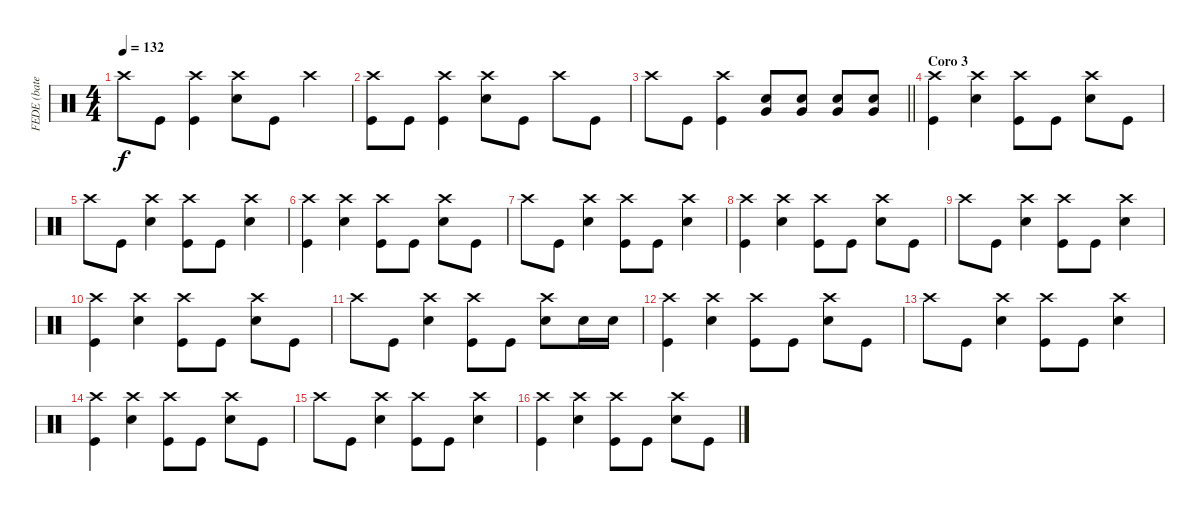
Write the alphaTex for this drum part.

\track ("FEDE (bateria)" "FEDE (bate") {instrument percussion}
\staff {score}
\articulation defaults
\ts (4 4)
\tempo 132
\clef neutral
\ks c "Crash high (hit)".8{dy f} "Kick (hit)".8
("Crash high (hit)" "Kick (hit)").4 ("Crash high (hit)" "Snare (hit) 2").8 "Kick (hit)".8 "Crash high (hit)".4 |
("Crash high (hit)" "Kick (hit)").8 "Kick (hit)".8 ("Crash high (hit)" "Kick (hit)").4 ("Crash high (hit)" "Snare (hit) 2").8 "Kick (hit)".8 "Crash high (hit)".8 "Kick (hit)".8 |
\barLineRight lightlight "Crash high (hit)".8 "Kick (hit)".8
("Crash high (hit)" "Kick (hit)").4 ("Snare (hit) 2" "Very Low Tom (hit)").8 ("Snare (hit) 2" "Very Low Tom (hit)").8 ("Snare (hit) 2" "Very Low Tom (hit)").8 ("Snare (hit) 2" "Very Low Tom (hit)").8 |
\section ("" "Coro 3")
("Crash high (hit)" "Kick (hit)").4 ("Crash high (hit)" "Snare (hit) 2").4 ("Crash high (hit)" "Kick (hit)").8 "Kick (hit)".8 ("Crash high (hit)" "Snare (hit) 2").8 "Kick (hit)".8 |
"Crash high (hit)".8 "Kick (hit)".8 ("Crash high (hit)" "Snare (hit) 2").4 ("Crash high (hit)" "Kick (hit)").8 "Kick (hit)".8 ("Crash high (hit)" "Snare (hit) 2").4 |
("Crash high (hit)" "Kick (hit)").4 ("Crash high (hit)" "Snare (hit) 2").4 ("Crash high (hit)" "Kick (hit)").8 "Kick (hit)".8 ("Crash high (hit)" "Snare (hit) 2").8 "Kick (hit)".8 |
"Crash high (hit)".8 "Kick (hit)".8 ("Crash high (hit)" "Snare (hit) 2").4 ("Crash high (hit)" "Kick (hit)").8 "Kick (hit)".8 ("Crash high (hit)" "Snare (hit) 2").4 |
("Crash high (hit)" "Kick (hit)").4 ("Crash high (hit)" "Snare (hit) 2").4 ("Crash high (hit)" "Kick (hit)").8 "Kick (hit)".8 ("Crash high (hit)" "Snare (hit) 2").8 "Kick (hit)".8 |
"Crash high (hit)".8 "Kick (hit)".8 ("Crash high (hit)" "Snare (hit) 2").4 ("Crash high (hit)" "Kick (hit)").8 "Kick (hit)".8 ("Crash high (hit)" "Snare (hit) 2").4 |
("Crash high (hit)" "Kick (hit)").4 ("Crash high (hit)" "Snare (hit) 2").4 ("Crash high (hit)" "Kick (hit)").8 "Kick (hit)".8 ("Crash high (hit)" "Snare (hit) 2").8 "Kick (hit)".8 |
"Crash high (hit)".8 "Kick (hit)".8 ("Crash high (hit)" "Snare (hit) 2").4 ("Crash high (hit)" "Kick (hit)").8 "Kick (hit)".8 ("Crash high (hit)" "Snare (hit) 2").8 "Snare (hit) 2".16 "Snare (hit) 2".16 |
("Crash high (hit)" "Kick (hit)").4 ("Crash high (hit)" "Snare (hit) 2").4 ("Crash high (hit)" "Kick (hit)").8 "Kick (hit)".8 ("Crash high (hit)" "Snare (hit) 2").8 "Kick (hit)".8 |
"Crash high (hit)".8 "Kick (hit)".8 ("Crash high (hit)" "Snare (hit) 2").4 ("Crash high (hit)" "Kick (hit)").8 "Kick (hit)".8 ("Crash high (hit)" "Snare (hit) 2").4 |
("Crash high (hit)" "Kick (hit)").4 ("Crash high (hit)" "Snare (hit) 2").4 ("Crash high (hit)" "Kick (hit)").8 "Kick (hit)".8 ("Crash high (hit)" "Snare (hit) 2").8 "Kick (hit)".8 |
"Crash high (hit)".8 "Kick (hit)".8 ("Crash high (hit)" "Snare (hit) 2").4 ("Crash high (hit)" "Kick (hit)").8 "Kick (hit)".8 ("Crash high (hit)" "Snare (hit) 2").4 |
("Crash high (hit)" "Kick (hit)").4 ("Crash high (hit)" "Snare (hit) 2").4 ("Crash high (hit)" "Kick (hit)").8 "Kick (hit)".8 ("Crash high (hit)" "Snare (hit) 2").8 "Kick (hit)".8
